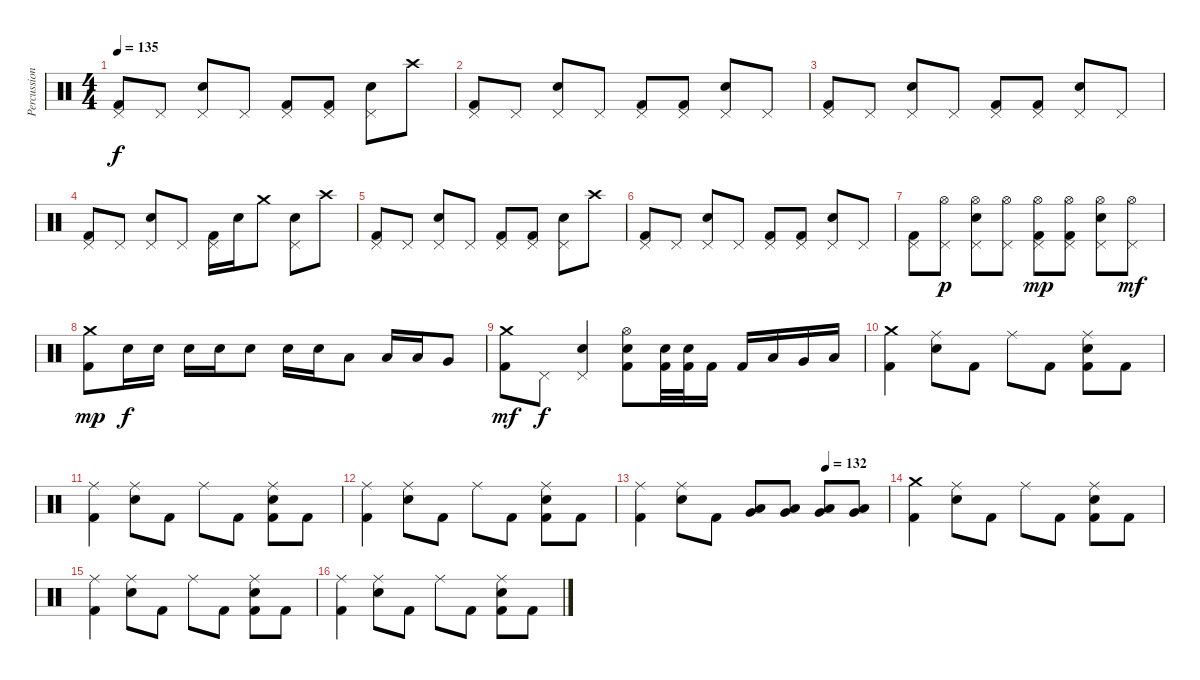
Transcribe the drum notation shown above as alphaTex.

\track ("Percussions" "Percussion") {instrument percussion}
\staff {score}
\articulation defaults
\ts (4 4)
\tempo 135
\clef neutral
\ks c
("Pedal Hi-Hat (hit)" "Kick (hit) 2").8{dy f} "Pedal Hi-Hat (hit)".8 ("Pedal Hi-Hat (hit)" "Electric Snare (hit)").8 "Pedal Hi-Hat (hit)".8 ("Pedal Hi-Hat (hit)" "Kick (hit) 2").8 ("Pedal Hi-Hat (hit)" "Kick (hit) 2").8 ("Pedal Hi-Hat (hit)" "Electric Snare (hit)").8 "Crash high (hit)".8 |
("Pedal Hi-Hat (hit)" "Kick (hit) 2").8 "Pedal Hi-Hat (hit)".8 ("Pedal Hi-Hat (hit)" "Electric Snare (hit)").8 "Pedal Hi-Hat (hit)".8 ("Pedal Hi-Hat (hit)" "Kick (hit) 2").8 ("Pedal Hi-Hat (hit)" "Kick (hit) 2").8 ("Pedal Hi-Hat (hit)" "Electric Snare (hit)").8 "Pedal Hi-Hat (hit)".8 |
("Pedal Hi-Hat (hit)" "Kick (hit) 2").8 "Pedal Hi-Hat (hit)".8 ("Pedal Hi-Hat (hit)" "Electric Snare (hit)").8 "Pedal Hi-Hat (hit)".8 ("Pedal Hi-Hat (hit)" "Kick (hit) 2").8 ("Pedal Hi-Hat (hit)" "Kick (hit) 2").8 ("Pedal Hi-Hat (hit)" "Electric Snare (hit)").8 "Pedal Hi-Hat (hit)".8 |
("Pedal Hi-Hat (hit)" "Kick (hit) 2").8 "Pedal Hi-Hat (hit)".8 ("Pedal Hi-Hat (hit)" "Electric Snare (hit)").8 "Pedal Hi-Hat (hit)".8 ("Pedal Hi-Hat (hit)" "Kick (hit) 2").16 "Electric Snare (hit)".16 "Crash medium (hit)".8 ("Pedal Hi-Hat (hit)" "Electric Snare (hit)").8 "Crash high (hit)".8 |
("Pedal Hi-Hat (hit)" "Kick (hit) 2").8 "Pedal Hi-Hat (hit)".8 ("Pedal Hi-Hat (hit)" "Electric Snare (hit)").8 "Pedal Hi-Hat (hit)".8 ("Pedal Hi-Hat (hit)" "Kick (hit) 2").8 ("Pedal Hi-Hat (hit)" "Kick (hit) 2").8 ("Pedal Hi-Hat (hit)" "Electric Snare (hit)").8 "Crash high (hit)".8 |
("Pedal Hi-Hat (hit)" "Kick (hit) 2").8 "Pedal Hi-Hat (hit)".8 ("Pedal Hi-Hat (hit)" "Electric Snare (hit)").8 "Pedal Hi-Hat (hit)".8 ("Pedal Hi-Hat (hit)" "Kick (hit) 2").8 ("Pedal Hi-Hat (hit)" "Kick (hit) 2").8 ("Pedal Hi-Hat (hit)" "Electric Snare (hit)").8 "Pedal Hi-Hat (hit)".8 |
("Pedal Hi-Hat (hit)" "Kick (hit) 2").8 ("Pedal Hi-Hat (hit)" "Hi-Hat (open)").8{dy p} ("Pedal Hi-Hat (hit)" "Hi-Hat (open)" "Electric Snare (hit)").8 ("Pedal Hi-Hat (hit)" "Hi-Hat (open)").8 ("Pedal Hi-Hat (hit)" "Hi-Hat (open)" "Kick (hit) 2").8{dy mp} ("Pedal Hi-Hat (hit)" "Hi-Hat (open)" "Kick (hit) 2").8 ("Pedal Hi-Hat (hit)" "Hi-Hat (open)" "Electric Snare (hit)").8 ("Pedal Hi-Hat (hit)" "Hi-Hat (open)").8{dy mf} |
("Crash medium (hit)" "Kick (hit) 2").8{dy mp} "Electric Snare (hit)".16{dy f} "Electric Snare (hit)".16 "Electric Snare (hit)".16 "Electric Snare (hit)".16 "Electric Snare (hit)".8 "Electric Snare (hit)".16 "Electric Snare (hit)".16 "Low Tom (hit)".8 "Low Tom (hit)".16 "Low Tom (hit)".16 "Very Low Tom (hit)".8 |
("Crash medium (hit)" "Kick (hit) 2").8{dy mf} "Pedal Hi-Hat (hit)".8{dy f} ("Pedal Hi-Hat (hit)" "Electric Snare (hit)").4 ("Hi-Hat (open)" "Electric Snare (hit)" "Kick (hit) 2").8 ("Electric Snare (hit)" "Kick (hit) 2").32 ("Electric Snare (hit)" "Kick (hit) 2").32 "Kick (hit) 2".16 "Kick (hit) 2".16 "Low Tom (hit)".16 "Very Low Tom (hit)".16 "Low Floor Tom (hit)".16 |
("Crash medium (hit)" "Kick (hit) 2").4 ("Ride (middle)" "Electric Snare (hit)").8 "Kick (hit) 2".8 "Ride (middle)".8 "Kick (hit) 2".8 ("Ride (middle)" "Electric Snare (hit)" "Kick (hit) 2").8 "Kick (hit) 2".8 |
("Ride (middle)" "Kick (hit) 2").4 ("Ride (middle)" "Electric Snare (hit)").8 "Kick (hit) 2".8 "Ride (middle)".8 "Kick (hit) 2".8 ("Ride (middle)" "Electric Snare (hit)" "Kick (hit) 2").8 "Kick (hit) 2".8 |
("Ride (middle)" "Kick (hit) 2").4 ("Ride (middle)" "Electric Snare (hit)").8 "Kick (hit) 2".8 "Ride (middle)".8 "Kick (hit) 2".8 ("Ride (middle)" "Electric Snare (hit)" "Kick (hit) 2").8 "Kick (hit) 2".8 |
\tempo (132 0.75)
("Ride (middle)" "Kick (hit) 2").4 ("Ride (middle)" "Electric Snare (hit)").8 "Kick (hit) 2".8 ("Low Tom (hit)" "Very Low Tom (hit)").8 ("Low Tom (hit)" "Very Low Tom (hit)").8 ("Low Tom (hit)" "Very Low Tom (hit)").8 ("Low Tom (hit)" "Very Low Tom (hit)").8 |
("Crash medium (hit)" "Kick (hit) 2").4 ("Ride (middle)" "Electric Snare (hit)").8 "Kick (hit) 2".8 "Ride (middle)".8 "Kick (hit) 2".8 ("Ride (middle)" "Electric Snare (hit)" "Kick (hit) 2").8 "Kick (hit) 2".8 |
("Ride (middle)" "Kick (hit) 2").4 ("Ride (middle)" "Electric Snare (hit)").8 "Kick (hit) 2".8 "Ride (middle)".8 "Kick (hit) 2".8 ("Ride (middle)" "Electric Snare (hit)" "Kick (hit) 2").8 "Kick (hit) 2".8 |
("Ride (middle)" "Kick (hit) 2").4 ("Ride (middle)" "Electric Snare (hit)").8 "Kick (hit) 2".8 "Ride (middle)".8 "Kick (hit) 2".8 ("Ride (middle)" "Electric Snare (hit)" "Kick (hit) 2").8 "Kick (hit) 2".8
